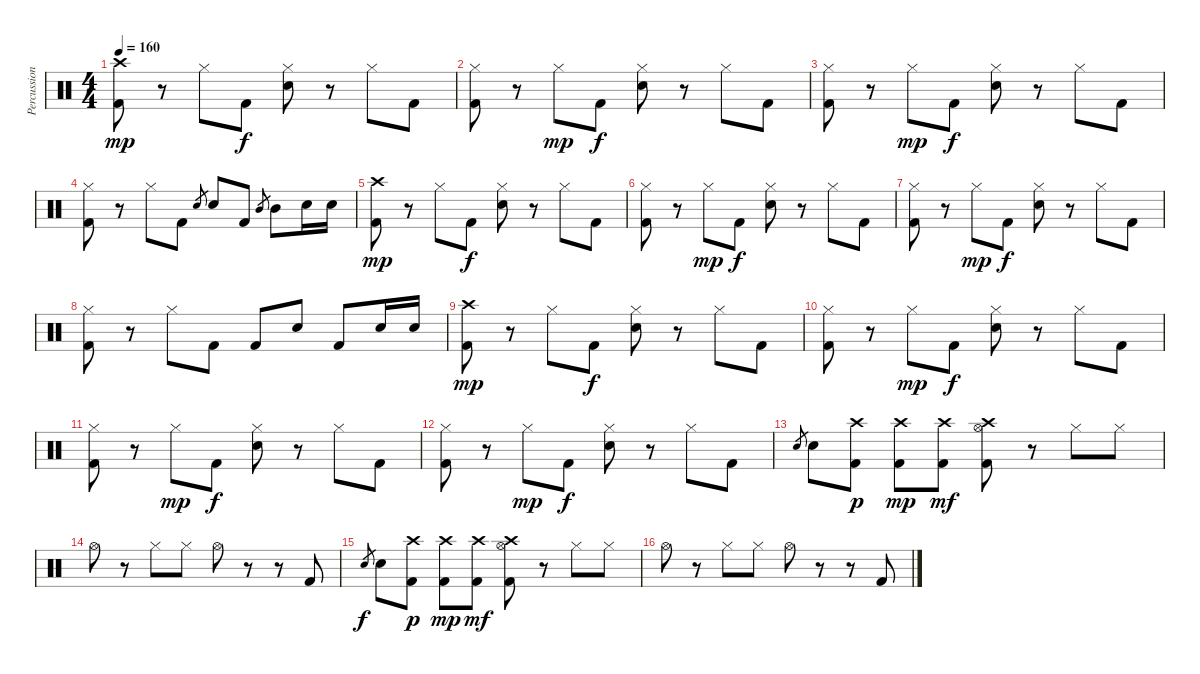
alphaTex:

\track ("Percussion" "Percussion") {instrument percussion}
\staff {score}
\articulation defaults
\ts (4 4)
\tempo 160
\clef neutral
\ks c
("Crash high (hit)" "Kick (hit) 2").8{dy mp} r.8 "Hi-Hat (closed)".8 "Kick (hit) 2".8{dy f} ("Hi-Hat (closed)" "Electric Snare (hit)").8 r.8 "Hi-Hat (closed)".8 "Kick (hit) 2".8 |
("Hi-Hat (closed)" "Kick (hit) 2").8 r.8 "Hi-Hat (closed)".8{dy mp} "Kick (hit) 2".8{dy f} ("Hi-Hat (closed)" "Electric Snare (hit)").8 r.8 "Hi-Hat (closed)".8 "Kick (hit) 2".8 |
("Hi-Hat (closed)" "Kick (hit) 2").8 r.8 "Hi-Hat (closed)".8{dy mp} "Kick (hit) 2".8{dy f} ("Hi-Hat (closed)" "Electric Snare (hit)").8 r.8 "Hi-Hat (closed)".8 "Kick (hit) 2".8 |
("Hi-Hat (closed)" "Kick (hit) 2").8 r.8 "Hi-Hat (closed)".8 "Kick (hit) 2".8 "Electric Snare (hit)".8{gr} "Electric Snare (hit)".8 "Kick (hit) 2".8 "Mid Tom (hit)".8{gr} "Mid Tom (hit)".8 "Electric Snare (hit)".16 "Electric Snare (hit)".16 |
("Crash high (hit)" "Kick (hit) 2").8{dy mp} r.8 "Hi-Hat (closed)".8 "Kick (hit) 2".8{dy f} ("Hi-Hat (closed)" "Electric Snare (hit)").8 r.8 "Hi-Hat (closed)".8 "Kick (hit) 2".8 |
("Hi-Hat (closed)" "Kick (hit) 2").8 r.8 "Hi-Hat (closed)".8{dy mp} "Kick (hit) 2".8{dy f} ("Hi-Hat (closed)" "Electric Snare (hit)").8 r.8 "Hi-Hat (closed)".8 "Kick (hit) 2".8 |
("Hi-Hat (closed)" "Kick (hit) 2").8 r.8 "Hi-Hat (closed)".8{dy mp} "Kick (hit) 2".8{dy f} ("Hi-Hat (closed)" "Electric Snare (hit)").8 r.8 "Hi-Hat (closed)".8 "Kick (hit) 2".8 |
("Hi-Hat (closed)" "Kick (hit) 2").8 r.8 "Hi-Hat (closed)".8 "Kick (hit) 2".8 "Kick (hit) 2".8 "Electric Snare (hit)".8 "Kick (hit) 2".8 "Electric Snare (hit)".16 "Electric Snare (hit)".16 |
("Crash high (hit)" "Kick (hit) 2").8{dy mp} r.8 "Hi-Hat (closed)".8 "Kick (hit) 2".8{dy f} ("Hi-Hat (closed)" "Electric Snare (hit)").8 r.8 "Hi-Hat (closed)".8 "Kick (hit) 2".8 |
("Hi-Hat (closed)" "Kick (hit) 2").8 r.8 "Hi-Hat (closed)".8{dy mp} "Kick (hit) 2".8{dy f} ("Hi-Hat (closed)" "Electric Snare (hit)").8 r.8 "Hi-Hat (closed)".8 "Kick (hit) 2".8 |
("Hi-Hat (closed)" "Kick (hit) 2").8 r.8 "Hi-Hat (closed)".8{dy mp} "Kick (hit) 2".8{dy f} ("Hi-Hat (closed)" "Electric Snare (hit)").8 r.8 "Hi-Hat (closed)".8 "Kick (hit) 2".8 |
("Hi-Hat (closed)" "Kick (hit) 2").8 r.8 "Hi-Hat (closed)".8{dy mp} "Kick (hit) 2".8{dy f} ("Hi-Hat (closed)" "Electric Snare (hit)").8 r.8 "Hi-Hat (closed)".8 "Kick (hit) 2".8 |
"Electric Snare (hit)".8{gr} "Electric Snare (hit)".8 ("Crash high (hit)" "Kick (hit) 2").8{dy p} ("Crash high (hit)" "Kick (hit) 2").8{dy mp} ("Crash high (hit)" "Kick (hit) 2").8{dy mf} ("Crash high (hit)" "Hi-Hat (open)" "Kick (hit) 2").8 r.8 "Hi-Hat (closed)".8 "Hi-Hat (closed)".8 |
"Hi-Hat (open)".8 r.8 "Hi-Hat (closed)".8 "Hi-Hat (closed)".8 "Hi-Hat (open)".8 r.8 r.8 "Kick (hit) 2".8 |
"Electric Snare (hit)".8{gr dy f} "Electric Snare (hit)".8 ("Crash high (hit)" "Kick (hit) 2").8{dy p} ("Crash high (hit)" "Kick (hit) 2").8{dy mp} ("Crash high (hit)" "Kick (hit) 2").8{dy mf} ("Crash high (hit)" "Hi-Hat (open)" "Kick (hit) 2").8 r.8 "Hi-Hat (closed)".8 "Hi-Hat (closed)".8 |
"Hi-Hat (open)".8 r.8 "Hi-Hat (closed)".8 "Hi-Hat (closed)".8 "Hi-Hat (open)".8 r.8 r.8 "Kick (hit) 2".8
